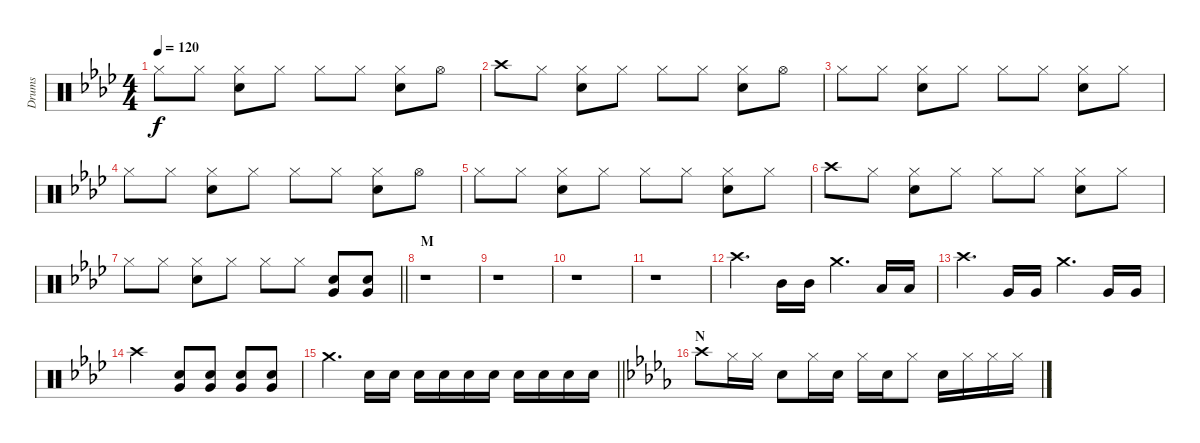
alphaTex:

\track ("Drums" "Drums") {instrument percussion}
\staff {score}
\articulation defaults
\ts (4 4)
\tempo 120
\clef neutral
\ks ab "Hi-Hat (closed)".8{dy f} "Hi-Hat (closed)".8
("Hi-Hat (closed)" "Snare (hit) 2").8 "Hi-Hat (closed)".8 "Hi-Hat (closed)".8 "Hi-Hat (closed)".8 ("Hi-Hat (closed)" "Snare (hit) 2").8 "Hi-Hat (open)".8 |
"Crash high (hit)".8 "Hi-Hat (closed)".8 ("Hi-Hat (closed)" "Snare (hit) 2").8 "Hi-Hat (closed)".8 "Hi-Hat (closed)".8 "Hi-Hat (closed)".8 ("Hi-Hat (closed)" "Snare (hit) 2").8 "Hi-Hat (open)".8 |
"Hi-Hat (closed)".8 "Hi-Hat (closed)".8 ("Hi-Hat (closed)" "Snare (hit) 2").8 "Hi-Hat (closed)".8 "Hi-Hat (closed)".8 "Hi-Hat (closed)".8 ("Hi-Hat (closed)" "Snare (hit) 2").8 "Hi-Hat (closed)".8 |
"Hi-Hat (closed)".8 "Hi-Hat (closed)".8 ("Hi-Hat (closed)" "Snare (hit) 2").8 "Hi-Hat (closed)".8 "Hi-Hat (closed)".8 "Hi-Hat (closed)".8 ("Hi-Hat (closed)" "Snare (hit) 2").8 "Hi-Hat (open)".8 |
"Hi-Hat (closed)".8 "Hi-Hat (closed)".8 ("Hi-Hat (closed)" "Snare (hit) 2").8 "Hi-Hat (closed)".8 "Hi-Hat (closed)".8 "Hi-Hat (closed)".8 ("Hi-Hat (closed)" "Snare (hit) 2").8 "Hi-Hat (closed)".8 |
"Crash high (hit)".8 "Hi-Hat (closed)".8 ("Hi-Hat (closed)" "Snare (hit) 2").8 "Hi-Hat (closed)".8 "Hi-Hat (closed)".8 "Hi-Hat (closed)".8 ("Hi-Hat (closed)" "Snare (hit) 2").8 "Hi-Hat (closed)".8 |
\barLineRight lightlight "Hi-Hat (closed)".8 "Hi-Hat (closed)".8
("Hi-Hat (closed)" "Snare (hit) 2").8 "Hi-Hat (closed)".8 "Hi-Hat (closed)".8 "Hi-Hat (closed)".8 ("Snare (hit) 2" "Very Low Tom (hit)").8 ("Snare (hit) 2" "Very Low Tom (hit)").8 |
\section ("" "M")
r.1 |
r.1 |
r.1 |
r.1 |
"Crash high (hit)".4{d} "Mid Tom (hit)".16 "Mid Tom (hit)".16 "Crash medium (hit)".4{d} "Low Tom (hit)".16 "Low Tom (hit)".16 |
"Crash high (hit)".4{d} "Very Low Tom (hit)".16 "Very Low Tom (hit)".16 "Crash medium (hit)".4{d} "Very Low Tom (hit)".16 "Very Low Tom (hit)".16 |
"Crash high (hit)".2 ("Snare (hit) 2" "Very Low Tom (hit)").8 ("Snare (hit) 2" "Very Low Tom (hit)").8 ("Snare (hit) 2" "Very Low Tom (hit)").8 ("Snare (hit) 2" "Very Low Tom (hit)").8 |
\barLineRight lightlight "Crash medium (hit)".4{d} "Snare (hit) 2".16 "Snare (hit) 2".16 "Snare (hit) 2".16 "Snare (hit) 2".16 "Snare (hit) 2".16 "Snare (hit) 2".16 "Snare (hit) 2".16 "Snare (hit) 2".16 "Snare (hit) 2".16 "Snare (hit) 2".16
|
\section ("" "N")
\ks db "Crash high (hit)".8 "Hi-Hat (closed)".16 "Hi-Hat (closed)".16 "Snare (hit) 2".8 "Hi-Hat (closed)".16 "Snare (hit) 2".16 "Hi-Hat (closed)".16 "Snare (hit) 2".16 "Hi-Hat (closed)".8 "Snare (hit) 2".16 "Hi-Hat (closed)".16 "Hi-Hat (closed)".16 "Hi-Hat (closed)".16
